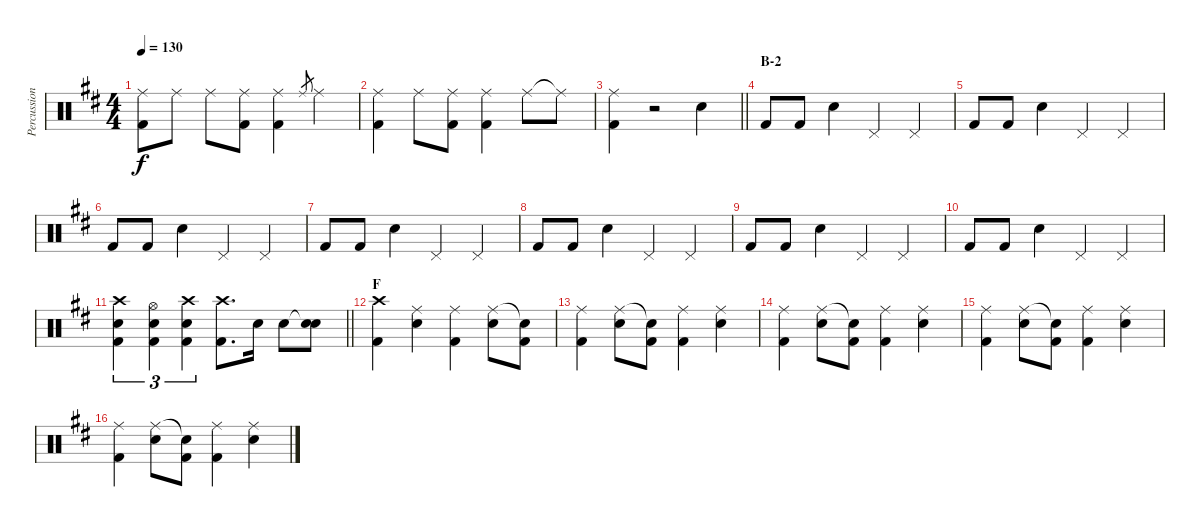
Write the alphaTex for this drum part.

\track ("Percussion" "Percussion") {instrument percussion}
\staff {score}
\articulation defaults
\ts (4 4)
\tempo 130
\clef neutral
\ks d
("Ride (middle)" "Kick (hit) 2").8{dy f} "Ride (middle)".8 "Ride (middle)".8 ("Ride (middle)" "Kick (hit) 2").8 ("Ride (middle)" "Kick (hit) 2").4 "Ride (middle)".8{gr} "Ride (middle)".4 |
("Ride (middle)" "Kick (hit) 2").4 "Ride (middle)".8 ("Ride (middle)" "Kick (hit) 2").8 ("Ride (middle)" "Kick (hit) 2").4 "Ride (middle)".8 "Ride (middle)"{t}.8 |
\barLineRight lightlight
("Ride (middle)" "Kick (hit) 2").4 r.2 "Electric Snare (hit)".4 |
\section ("" "B-2")
"Kick (hit) 2".8 "Kick (hit) 2".8 "Electric Snare (hit)".4 "Pedal Hi-Hat (hit)".4 "Pedal Hi-Hat (hit)".4 |
"Kick (hit) 2".8 "Kick (hit) 2".8 "Electric Snare (hit)".4 "Pedal Hi-Hat (hit)".4 "Pedal Hi-Hat (hit)".4 |
"Kick (hit) 2".8 "Kick (hit) 2".8 "Electric Snare (hit)".4 "Pedal Hi-Hat (hit)".4 "Pedal Hi-Hat (hit)".4 |
"Kick (hit) 2".8 "Kick (hit) 2".8 "Electric Snare (hit)".4 "Pedal Hi-Hat (hit)".4 "Pedal Hi-Hat (hit)".4 |
"Kick (hit) 2".8 "Kick (hit) 2".8 "Electric Snare (hit)".4 "Pedal Hi-Hat (hit)".4 "Pedal Hi-Hat (hit)".4 |
"Kick (hit) 2".8 "Kick (hit) 2".8 "Electric Snare (hit)".4 "Pedal Hi-Hat (hit)".4 "Pedal Hi-Hat (hit)".4 |
"Kick (hit) 2".8 "Kick (hit) 2".8 "Electric Snare (hit)".4 "Pedal Hi-Hat (hit)".4 "Pedal Hi-Hat (hit)".4 |
\barLineRight lightlight
("Crash high (hit)" "Electric Snare (hit)" "Kick (hit) 2").4{tu (3 2)} ("Hi-Hat (open)" "Electric Snare (hit)" "Kick (hit) 2").4{tu (3 2)} ("Crash high (hit)" "Electric Snare (hit)" "Kick (hit) 2").4{tu (3 2)} ("Crash high (hit)" "Kick (hit) 2").8{d} "Electric Snare (hit)".16 "Electric Snare (hit)".8 ("Snare (hit)"{t} "Electric Snare (hit)").8 |
\section ("" "F")
("Crash high (hit)" "Kick (hit) 2").4 ("Ride (middle)" "Electric Snare (hit)").4 ("Ride (middle)" "Kick (hit) 2").4 ("Ride (middle)" "Electric Snare (hit)").8 ("Snare (hit)"{t} "Kick (hit) 2").8 |
("Ride (middle)" "Kick (hit) 2").4 ("Ride (middle)" "Electric Snare (hit)").8 ("Snare (hit)"{t} "Kick (hit) 2").8 ("Ride (middle)" "Kick (hit) 2").4 ("Ride (middle)" "Electric Snare (hit)").4 |
("Ride (middle)" "Kick (hit) 2").4 ("Ride (middle)" "Electric Snare (hit)").8 ("Snare (hit)"{t} "Kick (hit) 2").8 ("Ride (middle)" "Kick (hit) 2").4 ("Ride (middle)" "Electric Snare (hit)").4 |
("Ride (middle)" "Kick (hit) 2").4 ("Ride (middle)" "Electric Snare (hit)").8 ("Snare (hit)"{t} "Kick (hit) 2").8 ("Ride (middle)" "Kick (hit) 2").4 ("Ride (middle)" "Electric Snare (hit)").4 |
("Ride (middle)" "Kick (hit) 2").4 ("Ride (middle)" "Electric Snare (hit)").8 ("Snare (hit)"{t} "Kick (hit) 2").8 ("Ride (middle)" "Kick (hit) 2").4 ("Ride (middle)" "Electric Snare (hit)").4
